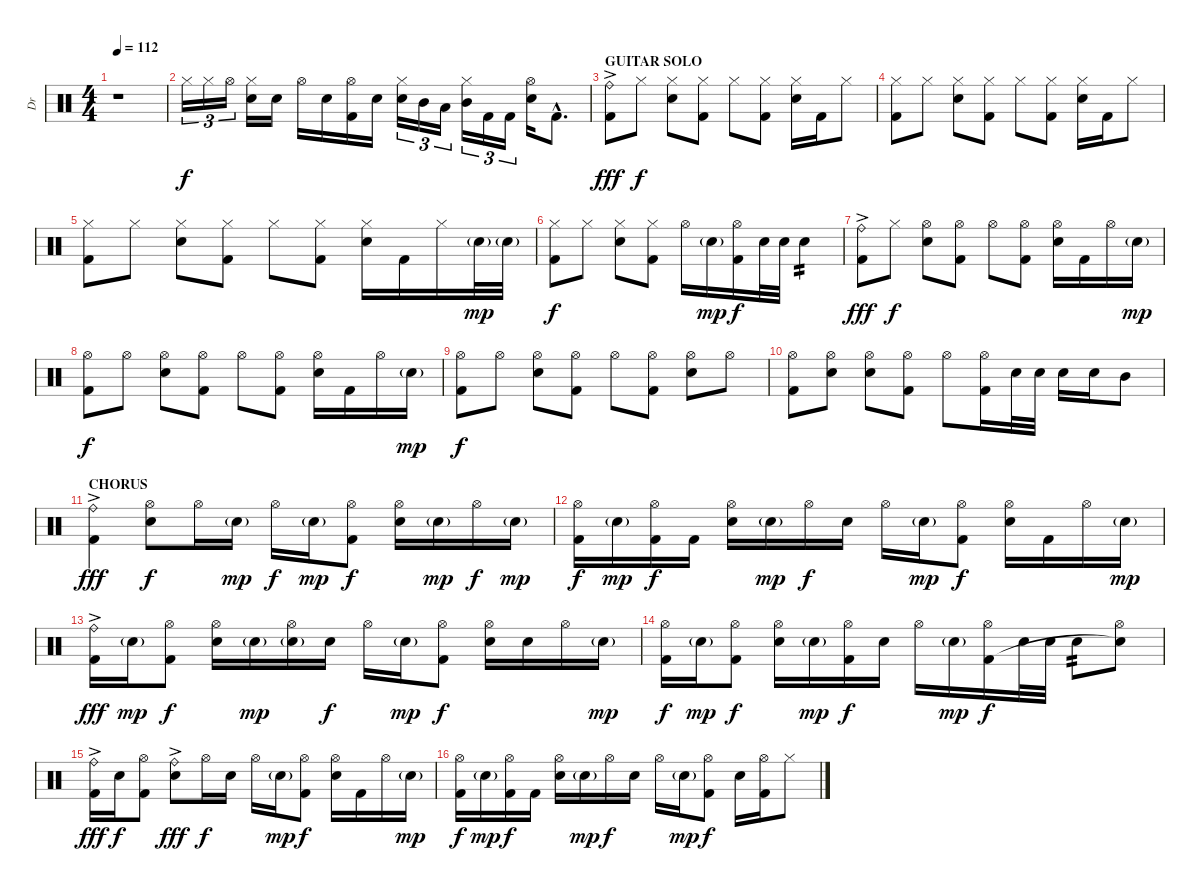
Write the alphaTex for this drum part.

\track ("Dr" "Dr") {instrument percussion}
\staff {score}
\articulation defaults
\ts (4 4)
\tempo 112
\clef neutral
\ks c
r.1{dy fff} |
"Hi-Hat (closed)".16{tu (3 2) dy f} "Hi-Hat (closed)".16{tu (3 2)} "Hi-Hat (open)".16{tu (3 2)} ("Hi-Hat (closed)" "Electric Snare (hit)").16 "Electric Snare (hit)".16 "Hi-Hat (open)".16 "Electric Snare (hit)".16 ("Hi-Hat (open)" "Kick (hit) 2").16 "Electric Snare (hit)".16 ("Hi-Hat (closed)" "Electric Snare (hit)").16{tu (3 2)} "Mid Tom (hit)".16{tu (3 2)} "Low Tom (hit)".16{tu (3 2)} ("Hi-Hat (closed)" "Mid Tom (hit)").16{tu (3 2)} "Kick (hit) 2".16{tu (3 2)} "Kick (hit) 2".16{tu (3 2)} ("Hi-Hat (open)" "Electric Snare (hit)").16 "Kick (hit) 2"{hac}.8{d} |
\section ("" "GUITAR SOLO")
("Ride (bell)"{ac} "Kick (hit) 2"{ac}).8{dy fff} "Hi-Hat (closed)".8{dy f} ("Hi-Hat (closed)" "Electric Snare (hit)").8 ("Hi-Hat (closed)" "Kick (hit) 2").8 "Hi-Hat (closed)".8 ("Hi-Hat (closed)" "Kick (hit) 2").8 ("Hi-Hat (closed)" "Electric Snare (hit)").16 "Kick (hit) 2".16 "Hi-Hat (closed)".8 |
("Hi-Hat (closed)" "Kick (hit) 2").8 "Hi-Hat (closed)".8 ("Hi-Hat (closed)" "Electric Snare (hit)").8 ("Hi-Hat (closed)" "Kick (hit) 2").8 "Hi-Hat (closed)".8 ("Hi-Hat (closed)" "Kick (hit) 2").8 ("Hi-Hat (closed)" "Electric Snare (hit)").16 "Kick (hit) 2".16 "Hi-Hat (closed)".8 |
("Hi-Hat (closed)" "Kick (hit) 2").8 "Hi-Hat (closed)".8 ("Hi-Hat (closed)" "Electric Snare (hit)").8 ("Hi-Hat (closed)" "Kick (hit) 2").8 "Hi-Hat (closed)".8 ("Hi-Hat (closed)" "Kick (hit) 2").8 ("Hi-Hat (closed)" "Electric Snare (hit)").16 "Kick (hit) 2".16 "Hi-Hat (closed)".16 "Electric Snare (hit)"{g}.32{dy mp} "Electric Snare (hit)"{g}.32 |
("Hi-Hat (closed)" "Kick (hit) 2").8{dy f} "Hi-Hat (closed)".8 ("Hi-Hat (closed)" "Electric Snare (hit)").8 ("Hi-Hat (closed)" "Kick (hit) 2").8 "Hi-Hat (open)".16 "Electric Snare (hit)"{g}.16{dy mp} ("Hi-Hat (open)" "Kick (hit) 2").16{dy f} "Electric Snare (hit)".32 "Electric Snare (hit)".32 "Electric Snare (hit)".4{tp 2} |
("Ride (bell)"{ac} "Kick (hit) 2"{ac}).8{dy fff} "Hi-Hat (closed)".8{dy f} ("Hi-Hat (open)" "Electric Snare (hit)").8 ("Hi-Hat (open)" "Kick (hit) 2").8 "Hi-Hat (open)".8 ("Hi-Hat (open)" "Kick (hit) 2").8 ("Hi-Hat (open)" "Electric Snare (hit)").16 "Kick (hit) 2".16 "Hi-Hat (open)".16 "Electric Snare (hit)"{g}.16{dy mp} |
("Hi-Hat (open)" "Kick (hit) 2").8{dy f} "Hi-Hat (open)".8 ("Hi-Hat (open)" "Electric Snare (hit)").8 ("Hi-Hat (open)" "Kick (hit) 2").8 "Hi-Hat (open)".8 ("Hi-Hat (open)" "Kick (hit) 2").8 ("Hi-Hat (open)" "Electric Snare (hit)").16 "Kick (hit) 2".16 "Hi-Hat (open)".16 "Electric Snare (hit)"{g}.16{dy mp} |
("Hi-Hat (open)" "Kick (hit) 2").8{dy f} "Hi-Hat (open)".8 ("Hi-Hat (open)" "Electric Snare (hit)").8 ("Hi-Hat (open)" "Kick (hit) 2").8 "Hi-Hat (open)".8 ("Hi-Hat (open)" "Kick (hit) 2").8 ("Hi-Hat (open)" "Electric Snare (hit)").8 "Hi-Hat (open)".8 |
("Hi-Hat (open)" "Kick (hit) 2").8 ("Hi-Hat (open)" "Electric Snare (hit)").8 ("Hi-Hat (open)" "Electric Snare (hit)").8 ("Hi-Hat (open)" "Kick (hit) 2").8 "Hi-Hat (open)".8 ("Hi-Hat (open)" "Kick (hit) 2").16 "Electric Snare (hit)".32 "Electric Snare (hit)".32 "Electric Snare (hit)".16 "Electric Snare (hit)".16 "Mid Tom (hit)".8 |
\section ("" "CHORUS")
("Ride (bell)"{ac} "Kick (hit) 2"{ac}).4{dy fff} ("Hi-Hat (open)" "Electric Snare (hit)").8{dy f} "Hi-Hat (open)".16 "Electric Snare (hit)"{g}.16{dy mp} "Hi-Hat (open)".16{dy f} "Electric Snare (hit)"{g}.16{dy mp} ("Hi-Hat (open)" "Kick (hit) 2").8{dy f} ("Hi-Hat (open)" "Electric Snare (hit)").16 "Electric Snare (hit)"{g}.16{dy mp} "Hi-Hat (open)".16{dy f} "Electric Snare (hit)"{g}.16{dy mp} |
("Hi-Hat (open)" "Kick (hit) 2").16{dy f} "Electric Snare (hit)"{g}.16{dy mp} ("Hi-Hat (open)" "Kick (hit) 2").16{dy f} "Kick (hit) 2".16 ("Hi-Hat (open)" "Electric Snare (hit)").16 "Electric Snare (hit)"{g}.16{dy mp} "Hi-Hat (open)".16{dy f} "Electric Snare (hit)".16 "Hi-Hat (open)".16 "Electric Snare (hit)"{g}.16{dy mp} ("Hi-Hat (open)" "Kick (hit) 2").8{dy f} ("Hi-Hat (open)" "Electric Snare (hit)").16 "Kick (hit) 2".16 "Hi-Hat (open)".16 "Electric Snare (hit)"{g}.16{dy mp} |
("Ride (bell)"{ac} "Kick (hit) 2"{ac}).16{dy fff} "Electric Snare (hit)"{g}.16{dy mp} ("Hi-Hat (open)" "Kick (hit) 2").8{dy f} ("Hi-Hat (open)" "Electric Snare (hit)").16 "Electric Snare (hit)"{g}.16{dy mp} ("Hi-Hat (open)" "Electric Snare (hit)"{g}).16 "Electric Snare (hit)".16{dy f} "Hi-Hat (open)".16 "Electric Snare (hit)"{g}.16{dy mp} ("Hi-Hat (open)" "Kick (hit) 2").8{dy f} ("Hi-Hat (open)" "Electric Snare (hit)").16 "Electric Snare (hit)".16 "Hi-Hat (open)".16 "Electric Snare (hit)"{g}.16{dy mp} |
("Hi-Hat (open)" "Kick (hit) 2").16{dy f} "Electric Snare (hit)"{g}.16{dy mp} ("Hi-Hat (open)" "Kick (hit) 2").8{dy f} ("Hi-Hat (open)" "Electric Snare (hit)").16 "Electric Snare (hit)"{g}.16{dy mp} ("Hi-Hat (open)" "Kick (hit) 2").16{dy f} "Electric Snare (hit)".16 "Hi-Hat (open)".16 "Electric Snare (hit)"{g}.16{dy mp} ("Hi-Hat (open)" "Kick (hit) 2").16{dy f} "Electric Snare (hit)".32 "Electric Snare (hit)".32 "Electric Snare (hit)".8{tp 2} ("Hi-Hat (open)" "Snare (hit)"{t}).8 |
("Ride (bell)"{ac} "Kick (hit) 2"{ac}).16{dy fff} "Electric Snare (hit)".16{dy f} ("Hi-Hat (open)" "Kick (hit) 2").8 ("Ride (bell)"{ac} "Electric Snare (hit)"{ac}).8{dy fff} "Hi-Hat (open)".16{dy f} "Electric Snare (hit)".16 "Hi-Hat (open)".16 "Electric Snare (hit)"{g}.16{dy mp} ("Hi-Hat (open)" "Kick (hit) 2").8{dy f} ("Hi-Hat (open)" "Electric Snare (hit)").16 "Kick (hit) 2".16 "Hi-Hat (open)".16 "Electric Snare (hit)"{g}.16{dy mp} |
("Hi-Hat (open)" "Kick (hit) 2").16{dy f} "Electric Snare (hit)"{g}.16{dy mp} ("Hi-Hat (open)" "Kick (hit) 2").16{dy f} "Kick (hit) 2".16 ("Hi-Hat (open)" "Electric Snare (hit)").16 "Electric Snare (hit)"{g}.16{dy mp} "Hi-Hat (open)".16{dy f} "Electric Snare (hit)".16 "Hi-Hat (open)".16 "Electric Snare (hit)"{g}.16{dy mp} ("Hi-Hat (open)" "Kick (hit) 2").8{dy f} "Electric Snare (hit)".16 ("Hi-Hat (open)" "Kick (hit) 2").16 "Hi-Hat (closed)".8
